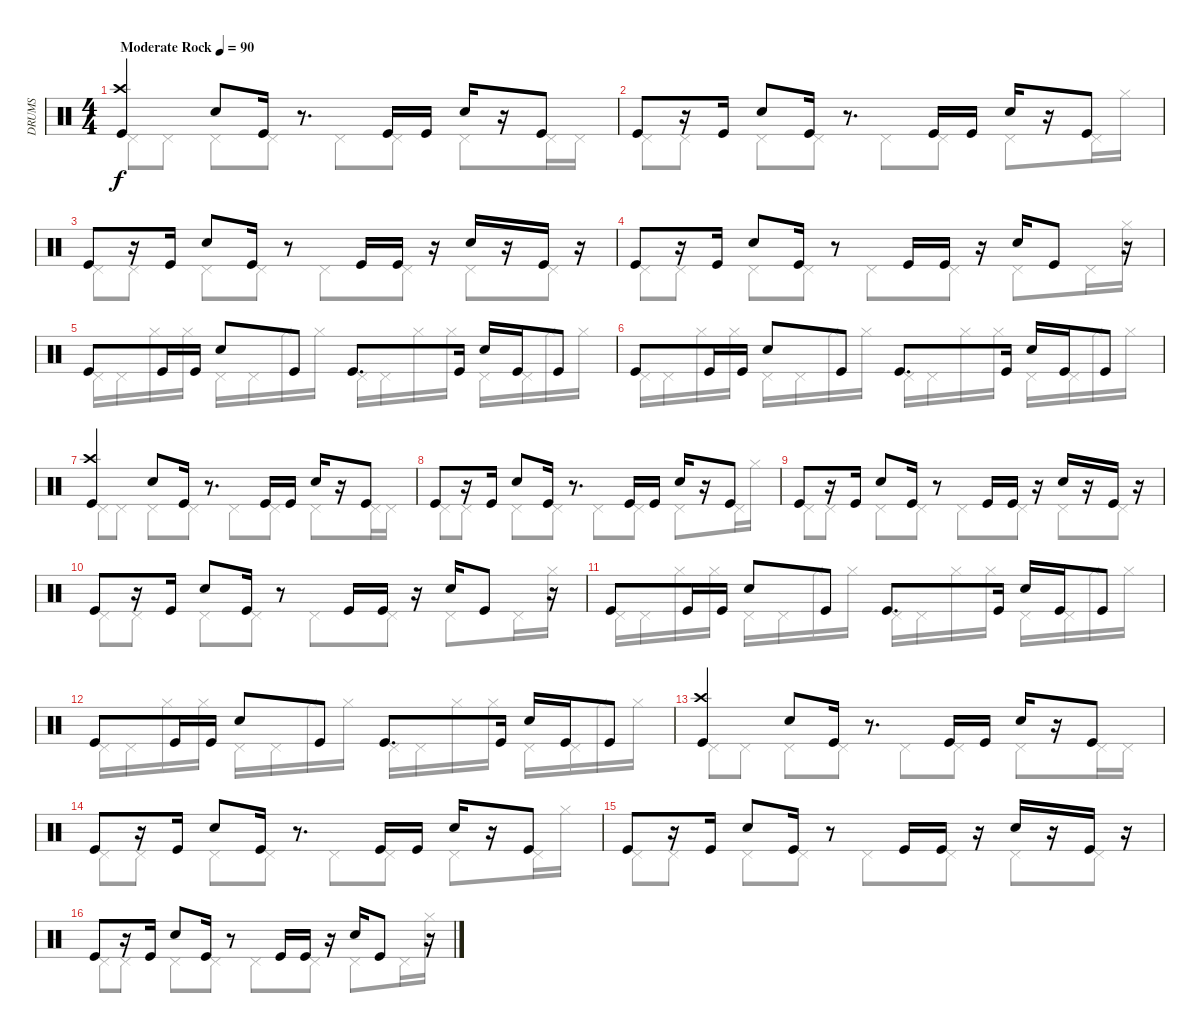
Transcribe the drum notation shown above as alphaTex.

\track ("DRUMS" "DRUMS") {instrument percussion}
\staff {score}
\articulation defaults
\voice
\ts (4 4)
\tempo (90 "Moderate Rock")
\clef neutral
\ks c
("Crash high (hit)" "Kick (hit)").4{dy f} "Electric Snare (hit)".8 "Kick (hit)".16 r.8{d} "Kick (hit)".16 "Kick (hit)".16 "Electric Snare (hit)".16 r.16 "Kick (hit)".8 |
"Kick (hit)".8 r.16 "Kick (hit)".16 "Electric Snare (hit)".8 "Kick (hit)".16 r.8{d} "Kick (hit)".16 "Kick (hit)".16 "Electric Snare (hit)".16 r.16 "Kick (hit)".8 |
"Kick (hit)".8 r.16 "Kick (hit)".16 "Electric Snare (hit)".8 "Kick (hit)".16 r.8 "Kick (hit)".16 "Kick (hit)".16 r.16 "Electric Snare (hit)".16 r.16 "Kick (hit)".16 r.16 |
"Kick (hit)".8 r.16 "Kick (hit)".16 "Electric Snare (hit)".8 "Kick (hit)".16 r.8 "Kick (hit)".16 "Kick (hit)".16 r.16 "Electric Snare (hit)".16 "Kick (hit)".8 r.16 |
"Kick (hit)".8 "Kick (hit)".16 "Kick (hit)".16 "Electric Snare (hit)".8 "Kick (hit)".8 "Kick (hit)".8{d} "Kick (hit)".16 "Electric Snare (hit)".16 "Kick (hit)".16 "Kick (hit)".8 |
"Kick (hit)".8 "Kick (hit)".16 "Kick (hit)".16 "Electric Snare (hit)".8 "Kick (hit)".8 "Kick (hit)".8{d} "Kick (hit)".16 "Electric Snare (hit)".16 "Kick (hit)".16 "Kick (hit)".8 |
("Crash high (hit)" "Kick (hit)").4 "Electric Snare (hit)".8 "Kick (hit)".16 r.8{d} "Kick (hit)".16 "Kick (hit)".16 "Electric Snare (hit)".16 r.16 "Kick (hit)".8 |
"Kick (hit)".8 r.16 "Kick (hit)".16 "Electric Snare (hit)".8 "Kick (hit)".16 r.8{d} "Kick (hit)".16 "Kick (hit)".16 "Electric Snare (hit)".16 r.16 "Kick (hit)".8 |
"Kick (hit)".8 r.16 "Kick (hit)".16 "Electric Snare (hit)".8 "Kick (hit)".16 r.8 "Kick (hit)".16 "Kick (hit)".16 r.16 "Electric Snare (hit)".16 r.16 "Kick (hit)".16 r.16 |
"Kick (hit)".8 r.16 "Kick (hit)".16 "Electric Snare (hit)".8 "Kick (hit)".16 r.8 "Kick (hit)".16 "Kick (hit)".16 r.16 "Electric Snare (hit)".16 "Kick (hit)".8 r.16 |
"Kick (hit)".8 "Kick (hit)".16 "Kick (hit)".16 "Electric Snare (hit)".8 "Kick (hit)".8 "Kick (hit)".8{d} "Kick (hit)".16 "Electric Snare (hit)".16 "Kick (hit)".16 "Kick (hit)".8 |
"Kick (hit)".8 "Kick (hit)".16 "Kick (hit)".16 "Electric Snare (hit)".8 "Kick (hit)".8 "Kick (hit)".8{d} "Kick (hit)".16 "Electric Snare (hit)".16 "Kick (hit)".16 "Kick (hit)".8 |
("Crash high (hit)" "Kick (hit)").4 "Electric Snare (hit)".8 "Kick (hit)".16 r.8{d} "Kick (hit)".16 "Kick (hit)".16 "Electric Snare (hit)".16 r.16 "Kick (hit)".8 |
"Kick (hit)".8 r.16 "Kick (hit)".16 "Electric Snare (hit)".8 "Kick (hit)".16 r.8{d} "Kick (hit)".16 "Kick (hit)".16 "Electric Snare (hit)".16 r.16 "Kick (hit)".8 |
"Kick (hit)".8 r.16 "Kick (hit)".16 "Electric Snare (hit)".8 "Kick (hit)".16 r.8 "Kick (hit)".16 "Kick (hit)".16 r.16 "Electric Snare (hit)".16 r.16 "Kick (hit)".16 r.16 |
"Kick (hit)".8 r.16 "Kick (hit)".16 "Electric Snare (hit)".8 "Kick (hit)".16 r.8 "Kick (hit)".16 "Kick (hit)".16 r.16 "Electric Snare (hit)".16 "Kick (hit)".8 r.16
\voice
\clef neutral
\ottava regular
\simile none
\ks c "Pedal Hi-Hat (hit)".8{dy f} "Pedal Hi-Hat (hit)".8 "Pedal Hi-Hat (hit)".8 "Pedal Hi-Hat (hit)".8 "Pedal Hi-Hat (hit)".8 "Pedal Hi-Hat (hit)".8 "Pedal Hi-Hat (hit)".8 "Pedal Hi-Hat (hit)".16 "Pedal Hi-Hat (hit)".16
|
"Pedal Hi-Hat (hit)".8 "Pedal Hi-Hat (hit)".8 "Pedal Hi-Hat (hit)".8 "Pedal Hi-Hat (hit)".8 "Pedal Hi-Hat (hit)".8 "Pedal Hi-Hat (hit)".8 "Pedal Hi-Hat (hit)".8 "Pedal Hi-Hat (hit)".16 "Hi-Hat (closed)".16 |
"Pedal Hi-Hat (hit)".8 "Pedal Hi-Hat (hit)".8 "Pedal Hi-Hat (hit)".8 "Pedal Hi-Hat (hit)".8 "Pedal Hi-Hat (hit)".8 "Pedal Hi-Hat (hit)".8 "Pedal Hi-Hat (hit)".8 "Pedal Hi-Hat (hit)".8 |
"Pedal Hi-Hat (hit)".8 "Pedal Hi-Hat (hit)".8 "Pedal Hi-Hat (hit)".8 "Pedal Hi-Hat (hit)".8 "Pedal Hi-Hat (hit)".8 "Pedal Hi-Hat (hit)".8 "Pedal Hi-Hat (hit)".8 "Pedal Hi-Hat (hit)".16 "Hi-Hat (closed)".16 |
"Pedal Hi-Hat (hit)".16 "Pedal Hi-Hat (hit)".16 "Hi-Hat (closed)".16 "Hi-Hat (closed)".16 "Pedal Hi-Hat (hit)".16 "Pedal Hi-Hat (hit)".16 "Hi-Hat (closed)".16 "Hi-Hat (closed)".16 "Pedal Hi-Hat (hit)".16 "Pedal Hi-Hat (hit)".16 "Hi-Hat (closed)".16 "Hi-Hat (closed)".16 "Pedal Hi-Hat (hit)".16 "Pedal Hi-Hat (hit)".16 "Hi-Hat (closed)".16 "Hi-Hat (closed)".16 |
"Pedal Hi-Hat (hit)".16 "Pedal Hi-Hat (hit)".16 "Hi-Hat (closed)".16 "Hi-Hat (closed)".16 "Pedal Hi-Hat (hit)".16 "Pedal Hi-Hat (hit)".16 "Hi-Hat (closed)".16 "Hi-Hat (closed)".16 "Pedal Hi-Hat (hit)".16 "Pedal Hi-Hat (hit)".16 "Hi-Hat (closed)".16 "Hi-Hat (closed)".16 "Pedal Hi-Hat (hit)".16 "Pedal Hi-Hat (hit)".16 "Hi-Hat (closed)".16 "Hi-Hat (closed)".16 |
"Pedal Hi-Hat (hit)".8 "Pedal Hi-Hat (hit)".8 "Pedal Hi-Hat (hit)".8 "Pedal Hi-Hat (hit)".8 "Pedal Hi-Hat (hit)".8 "Pedal Hi-Hat (hit)".8 "Pedal Hi-Hat (hit)".8 "Pedal Hi-Hat (hit)".16 "Pedal Hi-Hat (hit)".16 |
"Pedal Hi-Hat (hit)".8 "Pedal Hi-Hat (hit)".8 "Pedal Hi-Hat (hit)".8 "Pedal Hi-Hat (hit)".8 "Pedal Hi-Hat (hit)".8 "Pedal Hi-Hat (hit)".8 "Pedal Hi-Hat (hit)".8 "Pedal Hi-Hat (hit)".16 "Hi-Hat (closed)".16 |
"Pedal Hi-Hat (hit)".8 "Pedal Hi-Hat (hit)".8 "Pedal Hi-Hat (hit)".8 "Pedal Hi-Hat (hit)".8 "Pedal Hi-Hat (hit)".8 "Pedal Hi-Hat (hit)".8 "Pedal Hi-Hat (hit)".8 "Pedal Hi-Hat (hit)".8 |
"Pedal Hi-Hat (hit)".8 "Pedal Hi-Hat (hit)".8 "Pedal Hi-Hat (hit)".8 "Pedal Hi-Hat (hit)".8 "Pedal Hi-Hat (hit)".8 "Pedal Hi-Hat (hit)".8 "Pedal Hi-Hat (hit)".8 "Pedal Hi-Hat (hit)".16 "Hi-Hat (closed)".16 |
"Pedal Hi-Hat (hit)".16 "Pedal Hi-Hat (hit)".16 "Hi-Hat (closed)".16 "Hi-Hat (closed)".16 "Pedal Hi-Hat (hit)".16 "Pedal Hi-Hat (hit)".16 "Hi-Hat (closed)".16 "Hi-Hat (closed)".16 "Pedal Hi-Hat (hit)".16 "Pedal Hi-Hat (hit)".16 "Hi-Hat (closed)".16 "Hi-Hat (closed)".16 "Pedal Hi-Hat (hit)".16 "Pedal Hi-Hat (hit)".16 "Hi-Hat (closed)".16 "Hi-Hat (closed)".16 |
"Pedal Hi-Hat (hit)".16 "Pedal Hi-Hat (hit)".16 "Hi-Hat (closed)".16 "Hi-Hat (closed)".16 "Pedal Hi-Hat (hit)".16 "Pedal Hi-Hat (hit)".16 "Hi-Hat (closed)".16 "Hi-Hat (closed)".16 "Pedal Hi-Hat (hit)".16 "Pedal Hi-Hat (hit)".16 "Hi-Hat (closed)".16 "Hi-Hat (closed)".16 "Pedal Hi-Hat (hit)".16 "Pedal Hi-Hat (hit)".16 "Hi-Hat (closed)".16 "Hi-Hat (closed)".16 |
"Pedal Hi-Hat (hit)".8 "Pedal Hi-Hat (hit)".8 "Pedal Hi-Hat (hit)".8 "Pedal Hi-Hat (hit)".8 "Pedal Hi-Hat (hit)".8 "Pedal Hi-Hat (hit)".8 "Pedal Hi-Hat (hit)".8 "Pedal Hi-Hat (hit)".16 "Pedal Hi-Hat (hit)".16 |
"Pedal Hi-Hat (hit)".8 "Pedal Hi-Hat (hit)".8 "Pedal Hi-Hat (hit)".8 "Pedal Hi-Hat (hit)".8 "Pedal Hi-Hat (hit)".8 "Pedal Hi-Hat (hit)".8 "Pedal Hi-Hat (hit)".8 "Pedal Hi-Hat (hit)".16 "Hi-Hat (closed)".16 |
"Pedal Hi-Hat (hit)".8 "Pedal Hi-Hat (hit)".8 "Pedal Hi-Hat (hit)".8 "Pedal Hi-Hat (hit)".8 "Pedal Hi-Hat (hit)".8 "Pedal Hi-Hat (hit)".8 "Pedal Hi-Hat (hit)".8 "Pedal Hi-Hat (hit)".8 |
"Pedal Hi-Hat (hit)".8 "Pedal Hi-Hat (hit)".8 "Pedal Hi-Hat (hit)".8 "Pedal Hi-Hat (hit)".8 "Pedal Hi-Hat (hit)".8 "Pedal Hi-Hat (hit)".8 "Pedal Hi-Hat (hit)".8 "Pedal Hi-Hat (hit)".16 "Hi-Hat (closed)".16
